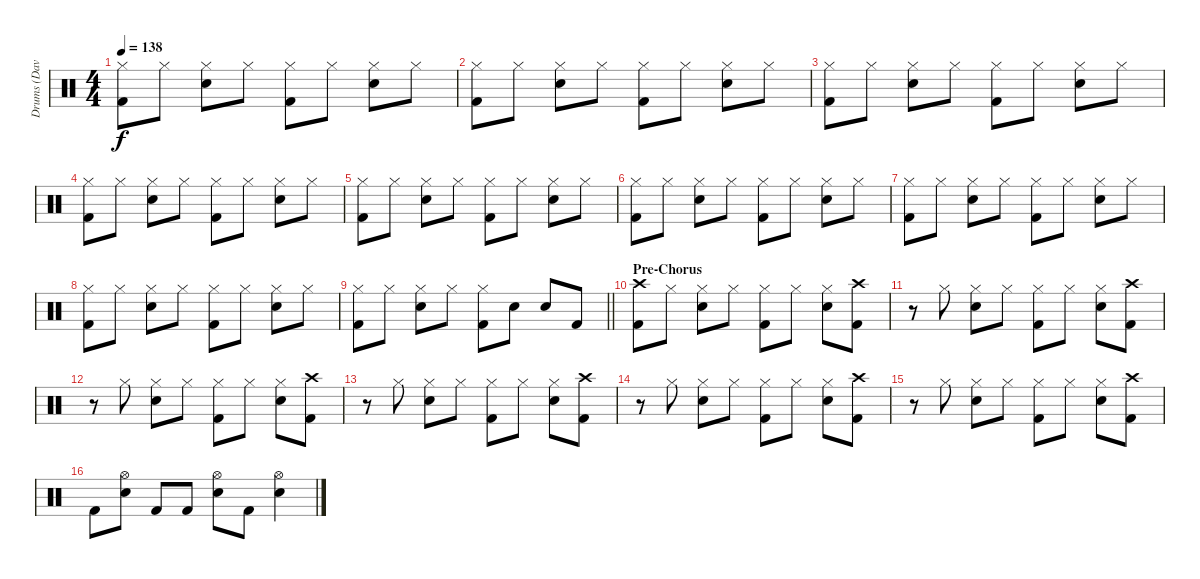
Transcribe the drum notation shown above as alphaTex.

\track ("Drums (Dave Holland)" "Drums (Dav") {instrument percussion}
\staff {score}
\articulation defaults
\ts (4 4)
\tempo 138
\clef neutral
\ks c
("Hi-Hat (closed)" "Kick (hit) 2").8{dy f} "Hi-Hat (closed)".8 ("Hi-Hat (closed)" "Snare (hit) 2").8 "Hi-Hat (closed)".8 ("Hi-Hat (closed)" "Kick (hit) 2").8 "Hi-Hat (closed)".8 ("Hi-Hat (closed)" "Snare (hit) 2").8 "Hi-Hat (closed)".8 |
("Hi-Hat (closed)" "Kick (hit) 2").8 "Hi-Hat (closed)".8 ("Hi-Hat (closed)" "Snare (hit) 2").8 "Hi-Hat (closed)".8 ("Hi-Hat (closed)" "Kick (hit) 2").8 "Hi-Hat (closed)".8 ("Hi-Hat (closed)" "Snare (hit) 2").8 "Hi-Hat (closed)".8 |
("Hi-Hat (closed)" "Kick (hit) 2").8 "Hi-Hat (closed)".8 ("Hi-Hat (closed)" "Snare (hit) 2").8 "Hi-Hat (closed)".8 ("Hi-Hat (closed)" "Kick (hit) 2").8 "Hi-Hat (closed)".8 ("Hi-Hat (closed)" "Snare (hit) 2").8 "Hi-Hat (closed)".8 |
("Hi-Hat (closed)" "Kick (hit) 2").8 "Hi-Hat (closed)".8 ("Hi-Hat (closed)" "Snare (hit) 2").8 "Hi-Hat (closed)".8 ("Hi-Hat (closed)" "Kick (hit) 2").8 "Hi-Hat (closed)".8 ("Hi-Hat (closed)" "Snare (hit) 2").8 "Hi-Hat (closed)".8 |
("Hi-Hat (closed)" "Kick (hit) 2").8 "Hi-Hat (closed)".8 ("Hi-Hat (closed)" "Snare (hit) 2").8 "Hi-Hat (closed)".8 ("Hi-Hat (closed)" "Kick (hit) 2").8 "Hi-Hat (closed)".8 ("Hi-Hat (closed)" "Snare (hit) 2").8 "Hi-Hat (closed)".8 |
("Hi-Hat (closed)" "Kick (hit) 2").8 "Hi-Hat (closed)".8 ("Hi-Hat (closed)" "Snare (hit) 2").8 "Hi-Hat (closed)".8 ("Hi-Hat (closed)" "Kick (hit) 2").8 "Hi-Hat (closed)".8 ("Hi-Hat (closed)" "Snare (hit) 2").8 "Hi-Hat (closed)".8 |
("Hi-Hat (closed)" "Kick (hit) 2").8 "Hi-Hat (closed)".8 ("Hi-Hat (closed)" "Snare (hit) 2").8 "Hi-Hat (closed)".8 ("Hi-Hat (closed)" "Kick (hit) 2").8 "Hi-Hat (closed)".8 ("Hi-Hat (closed)" "Snare (hit) 2").8 "Hi-Hat (closed)".8 |
("Hi-Hat (closed)" "Kick (hit) 2").8 "Hi-Hat (closed)".8 ("Hi-Hat (closed)" "Snare (hit) 2").8 "Hi-Hat (closed)".8 ("Hi-Hat (closed)" "Kick (hit) 2").8 "Hi-Hat (closed)".8 ("Hi-Hat (closed)" "Snare (hit) 2").8 "Hi-Hat (closed)".8 |
\barLineRight lightlight
("Hi-Hat (closed)" "Kick (hit) 2").8 "Hi-Hat (closed)".8 ("Hi-Hat (closed)" "Snare (hit) 2").8 "Hi-Hat (closed)".8 ("Hi-Hat (closed)" "Kick (hit) 2").8 "Snare (hit) 2".8 "Snare (hit) 2".8 "Kick (hit) 2".8 |
\section ("" "Pre-Chorus")
("Crash high (hit)" "Kick (hit) 2").8 "Hi-Hat (closed)".8 ("Hi-Hat (closed)" "Snare (hit) 2").8 "Hi-Hat (closed)".8 ("Hi-Hat (closed)" "Kick (hit) 2").8 "Hi-Hat (closed)".8 ("Hi-Hat (closed)" "Snare (hit) 2").8 ("Crash high (hit)" "Kick (hit) 2").8 |
r.8 "Hi-Hat (closed)".8 ("Hi-Hat (closed)" "Snare (hit) 2").8 "Hi-Hat (closed)".8 ("Hi-Hat (closed)" "Kick (hit) 2").8 "Hi-Hat (closed)".8 ("Hi-Hat (closed)" "Snare (hit) 2").8 ("Crash high (hit)" "Kick (hit) 2").8 |
r.8 "Hi-Hat (closed)".8 ("Hi-Hat (closed)" "Snare (hit) 2").8 "Hi-Hat (closed)".8 ("Hi-Hat (closed)" "Kick (hit) 2").8 "Hi-Hat (closed)".8 ("Hi-Hat (closed)" "Snare (hit) 2").8 ("Crash high (hit)" "Kick (hit) 2").8 |
r.8 "Hi-Hat (closed)".8 ("Hi-Hat (closed)" "Snare (hit) 2").8 "Hi-Hat (closed)".8 ("Hi-Hat (closed)" "Kick (hit) 2").8 "Hi-Hat (closed)".8 ("Hi-Hat (closed)" "Snare (hit) 2").8 ("Crash high (hit)" "Kick (hit) 2").8 |
r.8 "Hi-Hat (closed)".8 ("Hi-Hat (closed)" "Snare (hit) 2").8 "Hi-Hat (closed)".8 ("Hi-Hat (closed)" "Kick (hit) 2").8 "Hi-Hat (closed)".8 ("Hi-Hat (closed)" "Snare (hit) 2").8 ("Crash high (hit)" "Kick (hit) 2").8 |
r.8 "Hi-Hat (closed)".8 ("Hi-Hat (closed)" "Snare (hit) 2").8 "Hi-Hat (closed)".8 ("Hi-Hat (closed)" "Kick (hit) 2").8 "Hi-Hat (closed)".8 ("Hi-Hat (closed)" "Snare (hit) 2").8 ("Crash high (hit)" "Kick (hit) 2").8 |
"Kick (hit) 2".8 ("Hi-Hat (open)" "Snare (hit) 2").8 "Kick (hit) 2".8 "Kick (hit) 2".8 ("Hi-Hat (open)" "Snare (hit) 2").8 "Kick (hit) 2".8 ("Hi-Hat (open)" "Snare (hit) 2").4
